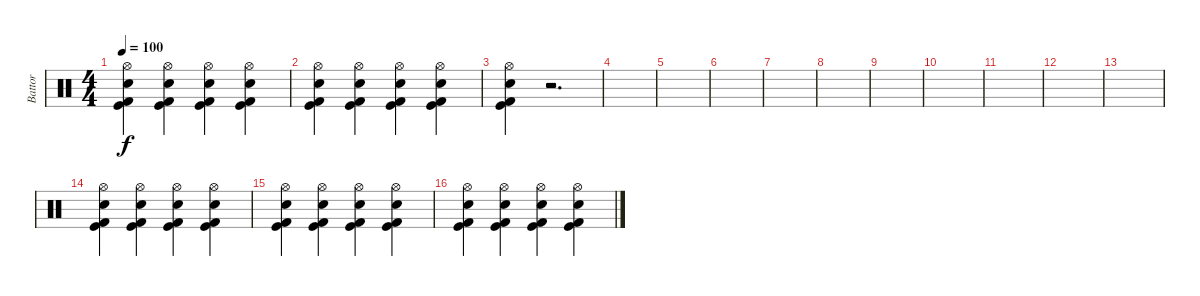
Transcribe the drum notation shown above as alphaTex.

\track ("Battor" "Battor") {instrument percussion}
\staff {score}
\articulation defaults
\ts (4 4)
\tempo 100
\clef neutral
\ks c
("Kick (hit)" "Kick (hit) 2" "Electric Snare (hit)" "Hi-Hat (open)").4{dy f} ("Kick (hit)" "Kick (hit) 2" "Electric Snare (hit)" "Hi-Hat (open)").4 ("Kick (hit)" "Kick (hit) 2" "Electric Snare (hit)" "Hi-Hat (open)").4 ("Kick (hit)" "Kick (hit) 2" "Electric Snare (hit)" "Hi-Hat (open)").4 |
("Kick (hit)" "Kick (hit) 2" "Electric Snare (hit)" "Hi-Hat (open)").4 ("Kick (hit)" "Kick (hit) 2" "Electric Snare (hit)" "Hi-Hat (open)").4 ("Kick (hit)" "Kick (hit) 2" "Electric Snare (hit)" "Hi-Hat (open)").4 ("Kick (hit)" "Kick (hit) 2" "Electric Snare (hit)" "Hi-Hat (open)").4 |
("Kick (hit)" "Kick (hit) 2" "Electric Snare (hit)" "Hi-Hat (open)").4 r.2{d} |
|
|
|
|
|
|
|
|
|
|
("Kick (hit)" "Kick (hit) 2" "Electric Snare (hit)" "Hi-Hat (open)").4 ("Kick (hit)" "Kick (hit) 2" "Electric Snare (hit)" "Hi-Hat (open)").4 ("Kick (hit)" "Kick (hit) 2" "Electric Snare (hit)" "Hi-Hat (open)").4 ("Kick (hit)" "Kick (hit) 2" "Electric Snare (hit)" "Hi-Hat (open)").4 |
("Kick (hit)" "Kick (hit) 2" "Electric Snare (hit)" "Hi-Hat (open)").4 ("Kick (hit)" "Kick (hit) 2" "Electric Snare (hit)" "Hi-Hat (open)").4 ("Kick (hit)" "Kick (hit) 2" "Electric Snare (hit)" "Hi-Hat (open)").4 ("Kick (hit)" "Kick (hit) 2" "Electric Snare (hit)" "Hi-Hat (open)").4 |
("Kick (hit)" "Kick (hit) 2" "Electric Snare (hit)" "Hi-Hat (open)").4 ("Kick (hit)" "Kick (hit) 2" "Electric Snare (hit)" "Hi-Hat (open)").4 ("Kick (hit)" "Kick (hit) 2" "Electric Snare (hit)" "Hi-Hat (open)").4 ("Kick (hit)" "Kick (hit) 2" "Electric Snare (hit)" "Hi-Hat (open)").4
